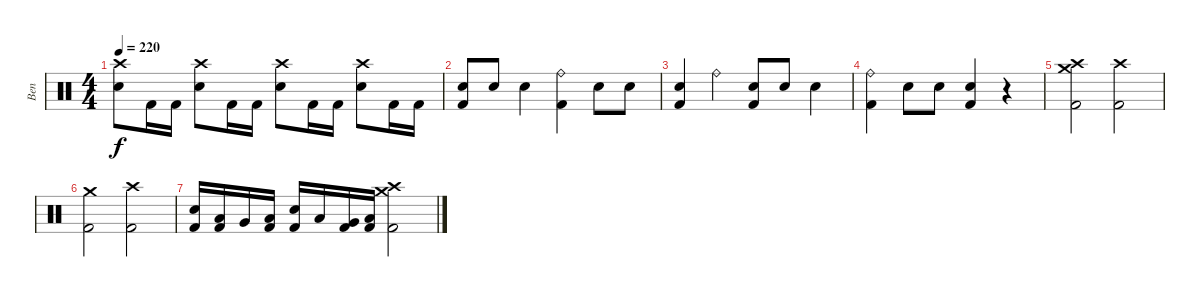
\track ("Ben" "Ben") {instrument percussion}
\staff {score}
\articulation defaults
\ts (4 4)
\tempo 220
\clef neutral
\ks c
("Crash high (hit)" "Snare (hit) 2").8{dy f} "Kick (hit) 2".16 "Kick (hit) 2".16 ("Crash high (hit)" "Snare (hit) 2").8 "Kick (hit) 2".16 "Kick (hit) 2".16 ("Crash high (hit)" "Snare (hit) 2").8 "Kick (hit) 2".16 "Kick (hit) 2".16 ("Crash high (hit)" "Snare (hit) 2").8 "Kick (hit) 2".16 "Kick (hit) 2".16 |
("Snare (hit) 2" "Kick (hit) 2").8 "Snare (hit) 2".8 "Snare (hit) 2".4 ("Ride (bell)" "Kick (hit) 2").4 "Snare (hit) 2".8 "Snare (hit) 2".8 |
("Snare (hit) 2" "Kick (hit) 2").4 "Ride (bell)".4 ("Snare (hit) 2" "Kick (hit) 2").8 "Snare (hit) 2".8 "Snare (hit) 2".4 |
("Ride (bell)" "Kick (hit) 2").4 "Snare (hit) 2".8 "Snare (hit) 2".8 ("Snare (hit) 2" "Kick (hit) 2").4 r.4 |
("Crash high (hit)" "Crash medium (hit)" "Kick (hit) 2").2 ("Crash high (hit)" "Kick (hit) 2").2 |
("Crash medium (hit)" "Kick (hit) 2").2 ("Crash high (hit)" "Kick (hit) 2").2 |
("Snare (hit) 2" "Kick (hit) 2").16 ("Low Tom (hit)" "Kick (hit) 2").16 "Very Low Tom (hit)".16 ("Low Floor Tom (hit)" "Kick (hit) 2").16 ("Snare (hit) 2" "Kick (hit) 2").16 "Low Tom (hit)".16 ("Very Low Tom (hit)" "Kick (hit) 2").16 ("Low Floor Tom (hit)" "Kick (hit) 2").16 ("Crash medium (hit)" "Crash high (hit)" "Kick (hit) 2").2
